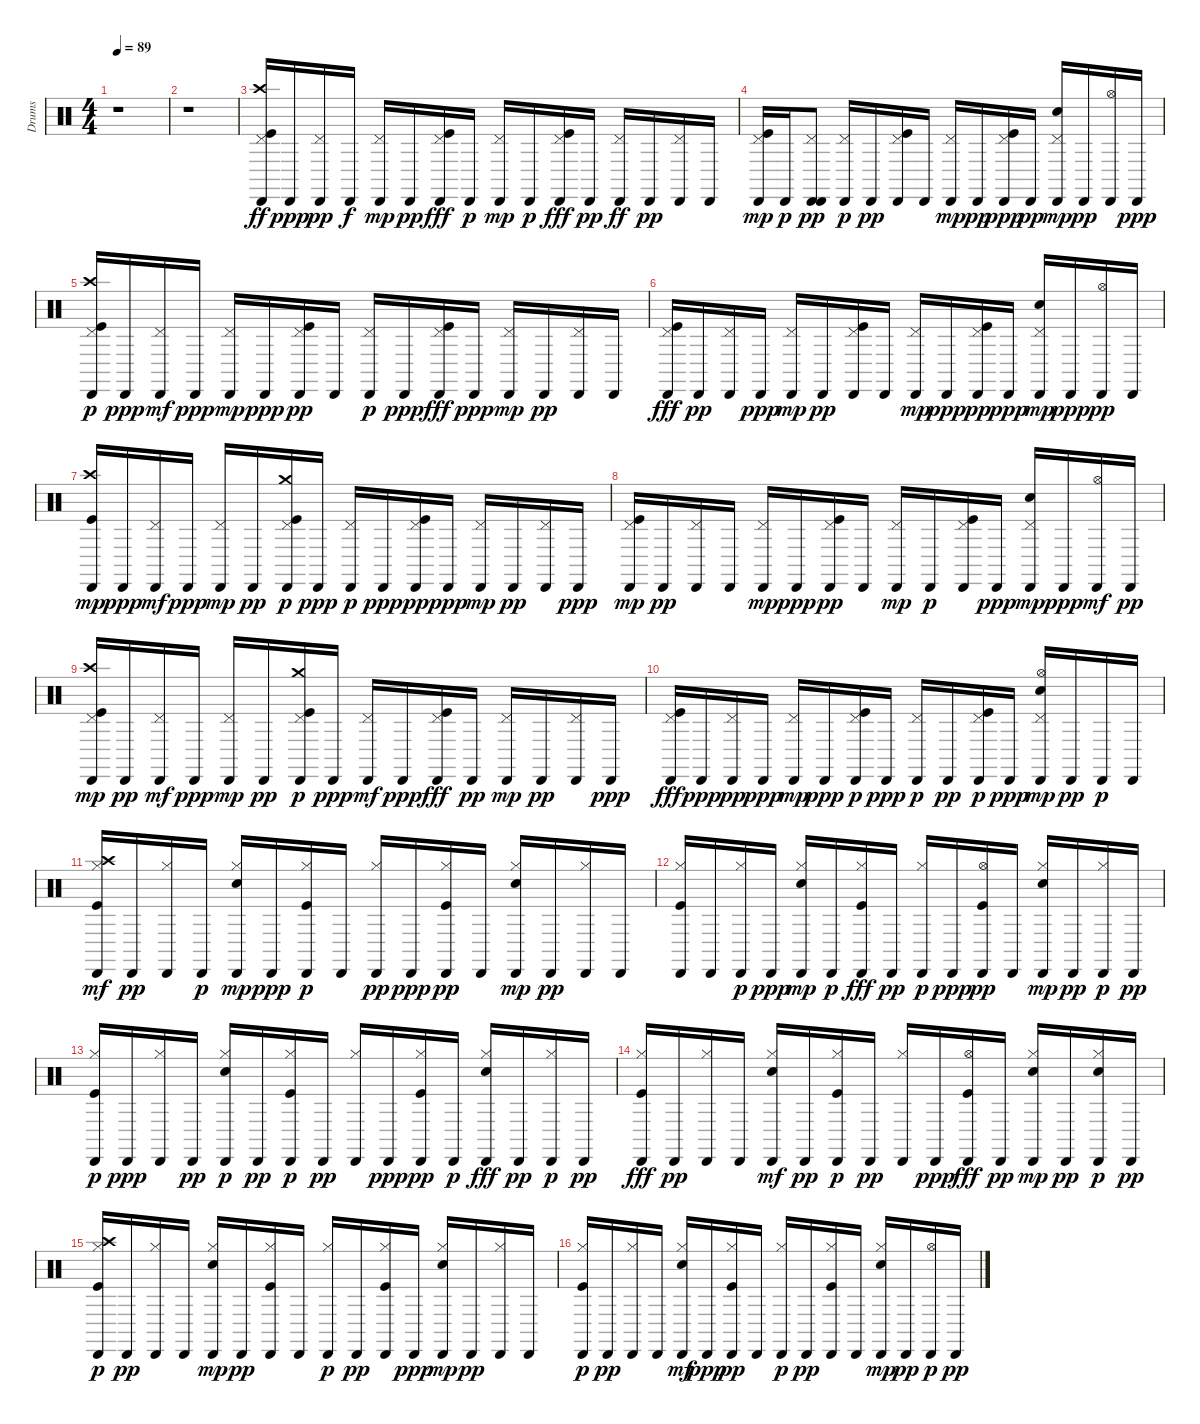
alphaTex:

\track ("Drums" "Drums") {instrument percussion}
\staff {score}
\articulation defaults
\ts (4 4)
\tempo 89
\clef neutral
\ks c
r.1{dy ff} |
r.1 |
("Pedal Hi-Hat (hit)" "Cabasa (hit)" "Kick (hit)" "Crash high (hit)").16 "Cabasa (hit)".16{dy ppp} ("Pedal Hi-Hat (hit)" "Cabasa (hit)").16{dy pp} "Cabasa (hit)".16{dy f} ("Pedal Hi-Hat (hit)" "Cabasa (hit)").16{dy mp} "Cabasa (hit)".16{dy pp} ("Pedal Hi-Hat (hit)" "Cabasa (hit)" "Kick (hit)").16{dy fff} "Cabasa (hit)".16{dy p} ("Pedal Hi-Hat (hit)" "Cabasa (hit)").16{dy mp} "Cabasa (hit)".16{dy p} ("Pedal Hi-Hat (hit)" "Cabasa (hit)" "Kick (hit)").16{dy fff} "Cabasa (hit)".16{dy pp} ("Cabasa (hit)" "Pedal Hi-Hat (hit)").16{dy ff} "Cabasa (hit)".16{dy pp} ("Pedal Hi-Hat (hit)" "Cabasa (hit)").16 "Cabasa (hit)".16 |
("Pedal Hi-Hat (hit)" "Kick (hit)" "Cabasa (hit)").16{dy mp} "Cabasa (hit)".16{dy p} ("Cabasa (hit)" "Pedal Hi-Hat (hit)" "Cabasa (hit)").8{dy pp} ("Pedal Hi-Hat (hit)" "Cabasa (hit)").16{dy p} "Cabasa (hit)".16{dy pp} ("Kick (hit)" "Pedal Hi-Hat (hit)" "Cabasa (hit)").16 "Cabasa (hit)".16 ("Pedal Hi-Hat (hit)" "Cabasa (hit)").16{dy mp} "Cabasa (hit)".16{dy pp} ("Pedal Hi-Hat (hit)" "Kick (hit)" "Cabasa (hit)").16{dy ppp} "Cabasa (hit)".16{dy pp} ("Pedal Hi-Hat (hit)" "Electric Snare (hit)" "Cabasa (hit)").16{dy mp} "Cabasa (hit)".16{dy pp} ("Hi-Hat (open)" "Cabasa (hit)").16 "Cabasa (hit)".16{dy ppp} |
("Kick (hit)" "Pedal Hi-Hat (hit)" "Cabasa (hit)" "Crash high (hit)").16{dy p} "Cabasa (hit)".16{dy ppp} ("Cabasa (hit)" "Pedal Hi-Hat (hit)").16{dy mf} "Cabasa (hit)".16{dy ppp} ("Cabasa (hit)" "Pedal Hi-Hat (hit)").16{dy mp} "Cabasa (hit)".16{dy ppp} ("Pedal Hi-Hat (hit)" "Kick (hit)" "Cabasa (hit)").16{dy pp} "Cabasa (hit)".16 ("Pedal Hi-Hat (hit)" "Cabasa (hit)").16{dy p} "Cabasa (hit)".16{dy ppp} ("Pedal Hi-Hat (hit)" "Cabasa (hit)" "Kick (hit)").16{dy fff} "Cabasa (hit)".16{dy ppp} ("Cabasa (hit)" "Pedal Hi-Hat (hit)").16{dy mp} "Cabasa (hit)".16{dy pp} ("Pedal Hi-Hat (hit)" "Cabasa (hit)").16 "Cabasa (hit)".16 |
("Cabasa (hit)" "Kick (hit)" "Pedal Hi-Hat (hit)").16{dy fff} "Cabasa (hit)".16{dy pp} ("Pedal Hi-Hat (hit)" "Cabasa (hit)").16 "Cabasa (hit)".16{dy ppp} ("Pedal Hi-Hat (hit)" "Cabasa (hit)").16{dy mp} "Cabasa (hit)".16{dy pp} ("Kick (hit)" "Pedal Hi-Hat (hit)" "Cabasa (hit)").16 "Cabasa (hit)".16 ("Pedal Hi-Hat (hit)" "Cabasa (hit)").16{dy mp} "Cabasa (hit)".16{dy ppp} ("Kick (hit)" "Pedal Hi-Hat (hit)" "Cabasa (hit)").16{dy pp} "Cabasa (hit)".16{dy ppp} ("Electric Snare (hit)" "Pedal Hi-Hat (hit)" "Cabasa (hit)").16{dy mp} "Cabasa (hit)".16{dy ppp} ("Hi-Hat (open)" "Cabasa (hit)").16{dy pp} "Cabasa (hit)".16 |
("Kick (hit)" "Crash high (hit)" "Cabasa (hit)").16{dy mp} "Cabasa (hit)".16{dy ppp} ("Cabasa (hit)" "Pedal Hi-Hat (hit)").16{dy mf} "Cabasa (hit)".16{dy ppp} ("Pedal Hi-Hat (hit)" "Cabasa (hit)").16{dy mp} "Cabasa (hit)".16{dy pp} ("Crash medium (hit)" "Pedal Hi-Hat (hit)" "Kick (hit)" "Cabasa (hit)").16{dy p} "Cabasa (hit)".16{dy ppp} ("Pedal Hi-Hat (hit)" "Cabasa (hit)").16{dy p} "Cabasa (hit)".16{dy ppp} ("Kick (hit)" "Pedal Hi-Hat (hit)" "Cabasa (hit)").16{dy pp} "Cabasa (hit)".16{dy ppp} ("Pedal Hi-Hat (hit)" "Cabasa (hit)").16{dy mp} "Cabasa (hit)".16{dy pp} ("Pedal Hi-Hat (hit)" "Cabasa (hit)").16 "Cabasa (hit)".16{dy ppp} |
("Pedal Hi-Hat (hit)" "Kick (hit)" "Cabasa (hit)").16{dy mp} "Cabasa (hit)".16{dy pp} ("Pedal Hi-Hat (hit)" "Cabasa (hit)").16 "Cabasa (hit)".16 ("Pedal Hi-Hat (hit)" "Cabasa (hit)").16{dy mp} "Cabasa (hit)".16{dy ppp} ("Kick (hit)" "Pedal Hi-Hat (hit)" "Cabasa (hit)").16{dy pp} "Cabasa (hit)".16 ("Pedal Hi-Hat (hit)" "Cabasa (hit)").16{dy mp} "Cabasa (hit)".16{dy p} ("Pedal Hi-Hat (hit)" "Kick (hit)" "Cabasa (hit)").16 "Cabasa (hit)".16{dy ppp} ("Pedal Hi-Hat (hit)" "Electric Snare (hit)" "Cabasa (hit)").16{dy mp} "Cabasa (hit)".16{dy ppp} ("Cabasa (hit)" "Hi-Hat (open)").16{dy mf} "Cabasa (hit)".16{dy pp} |
("Kick (hit)" "Cabasa (hit)" "Pedal Hi-Hat (hit)" "Crash high (hit)").16{dy mp} "Cabasa (hit)".16{dy pp} ("Cabasa (hit)" "Pedal Hi-Hat (hit)").16{dy mf} "Cabasa (hit)".16{dy ppp} ("Cabasa (hit)" "Pedal Hi-Hat (hit)").16{dy mp} "Cabasa (hit)".16{dy pp} ("Crash medium (hit)" "Kick (hit)" "Pedal Hi-Hat (hit)" "Cabasa (hit)").16{dy p} "Cabasa (hit)".16{dy ppp} ("Cabasa (hit)" "Pedal Hi-Hat (hit)").16{dy mf} "Cabasa (hit)".16{dy ppp} ("Pedal Hi-Hat (hit)" "Cabasa (hit)" "Kick (hit)").16{dy fff} "Cabasa (hit)".16{dy pp} ("Pedal Hi-Hat (hit)" "Cabasa (hit)").16{dy mp} "Cabasa (hit)".16{dy pp} ("Pedal Hi-Hat (hit)" "Cabasa (hit)").16 "Cabasa (hit)".16{dy ppp} |
("Pedal Hi-Hat (hit)" "Cabasa (hit)" "Kick (hit)").16{dy fff} "Cabasa (hit)".16{dy ppp} ("Pedal Hi-Hat (hit)" "Cabasa (hit)").16{dy pp} "Cabasa (hit)".16{dy ppp} ("Pedal Hi-Hat (hit)" "Cabasa (hit)").16{dy mp} "Cabasa (hit)".16{dy ppp} ("Kick (hit)" "Pedal Hi-Hat (hit)" "Cabasa (hit)").16{dy p} "Cabasa (hit)".16{dy ppp} ("Pedal Hi-Hat (hit)" "Cabasa (hit)").16{dy p} "Cabasa (hit)".16{dy pp} ("Pedal Hi-Hat (hit)" "Kick (hit)" "Cabasa (hit)").16{dy p} "Cabasa (hit)".16{dy ppp} ("Electric Snare (hit)" "Hi-Hat (open)" "Pedal Hi-Hat (hit)" "Cabasa (hit)").16{dy mp} "Cabasa (hit)".16{dy pp} "Cabasa (hit)".16{dy p} "Cabasa (hit)".16 |
("Hi-Hat (closed)" "Cabasa (hit)" "Kick (hit)" "Crash high (hit)").16{dy mf} "Cabasa (hit)".16{dy pp} ("Hi-Hat (closed)" "Cabasa (hit)").16 "Cabasa (hit)".16{dy p} ("Electric Snare (hit)" "Hi-Hat (closed)" "Cabasa (hit)").16{dy mp} "Cabasa (hit)".16{dy ppp} ("Hi-Hat (closed)" "Kick (hit)" "Cabasa (hit)").16{dy p} "Cabasa (hit)".16 ("Hi-Hat (closed)" "Cabasa (hit)").16{dy pp} "Cabasa (hit)".16{dy ppp} ("Kick (hit)" "Hi-Hat (closed)" "Cabasa (hit)").16{dy pp} "Cabasa (hit)".16 ("Electric Snare (hit)" "Hi-Hat (closed)" "Cabasa (hit)").16{dy mp} "Cabasa (hit)".16{dy pp} ("Hi-Hat (closed)" "Cabasa (hit)").16 "Cabasa (hit)".16 |
("Kick (hit)" "Hi-Hat (closed)" "Cabasa (hit)").16 "Cabasa (hit)".16 ("Hi-Hat (closed)" "Cabasa (hit)").16{dy p} "Cabasa (hit)".16{dy ppp} ("Electric Snare (hit)" "Hi-Hat (closed)" "Cabasa (hit)").16{dy mp} "Cabasa (hit)".16{dy p} ("Hi-Hat (closed)" "Cabasa (hit)" "Kick (hit)").16{dy fff} "Cabasa (hit)".16{dy pp} ("Hi-Hat (closed)" "Cabasa (hit)").16{dy p} "Cabasa (hit)".16{dy ppp} ("Hi-Hat (open)" "Kick (hit)" "Cabasa (hit)").16{dy pp} "Cabasa (hit)".16 ("Hi-Hat (closed)" "Electric Snare (hit)" "Cabasa (hit)").16{dy mp} "Cabasa (hit)".16{dy pp} ("Hi-Hat (closed)" "Cabasa (hit)").16{dy p} "Cabasa (hit)".16{dy pp} |
("Hi-Hat (closed)" "Kick (hit)" "Cabasa (hit)").16{dy p} "Cabasa (hit)".16{dy ppp} ("Hi-Hat (closed)" "Cabasa (hit)").16 "Cabasa (hit)".16{dy pp} ("Electric Snare (hit)" "Hi-Hat (closed)" "Cabasa (hit)").16{dy p} "Cabasa (hit)".16{dy pp} ("Hi-Hat (closed)" "Kick (hit)" "Cabasa (hit)").16{dy p} "Cabasa (hit)".16{dy pp} ("Hi-Hat (closed)" "Cabasa (hit)").16 "Cabasa (hit)".16{dy ppp} ("Hi-Hat (closed)" "Kick (hit)" "Cabasa (hit)").16{dy pp} "Cabasa (hit)".16{dy p} ("Hi-Hat (closed)" "Cabasa (hit)" "Electric Snare (hit)").16{dy fff} "Cabasa (hit)".16{dy pp} ("Hi-Hat (closed)" "Cabasa (hit)").16{dy p} "Cabasa (hit)".16{dy pp} |
("Hi-Hat (closed)" "Cabasa (hit)" "Kick (hit)").16{dy fff} "Cabasa (hit)".16{dy pp} ("Hi-Hat (closed)" "Cabasa (hit)").16 "Cabasa (hit)".16 ("Electric Snare (hit)" "Cabasa (hit)" "Hi-Hat (closed)").16{dy mf} "Cabasa (hit)".16{dy pp} ("Hi-Hat (closed)" "Kick (hit)" "Cabasa (hit)").16{dy p} "Cabasa (hit)".16{dy pp} ("Hi-Hat (closed)" "Cabasa (hit)").16 "Cabasa (hit)".16{dy ppp} ("Hi-Hat (open)" "Cabasa (hit)" "Kick (hit)").16{dy fff} "Cabasa (hit)".16{dy pp} ("Electric Snare (hit)" "Hi-Hat (closed)" "Cabasa (hit)").16{dy mp} "Cabasa (hit)".16{dy pp} ("Hi-Hat (closed)" "Electric Snare (hit)" "Cabasa (hit)").16{dy p} "Cabasa (hit)".16{dy pp} |
("Hi-Hat (closed)" "Kick (hit)" "Crash high (hit)" "Cabasa (hit)").16{dy p} "Cabasa (hit)".16{dy pp} ("Hi-Hat (closed)" "Cabasa (hit)").16 "Cabasa (hit)".16 ("Hi-Hat (closed)" "Electric Snare (hit)" "Cabasa (hit)").16{dy mp} "Cabasa (hit)".16{dy pp} ("Kick (hit)" "Hi-Hat (closed)" "Cabasa (hit)").16 "Cabasa (hit)".16 ("Hi-Hat (closed)" "Cabasa (hit)").16{dy p} "Cabasa (hit)".16{dy pp} ("Kick (hit)" "Hi-Hat (closed)" "Cabasa (hit)").16 "Cabasa (hit)".16{dy ppp} ("Electric Snare (hit)" "Hi-Hat (closed)" "Cabasa (hit)").16{dy mp} "Cabasa (hit)".16{dy pp} ("Hi-Hat (closed)" "Cabasa (hit)").16 "Cabasa (hit)".16 |
("Kick (hit)" "Hi-Hat (closed)" "Cabasa (hit)").16{dy p} "Cabasa (hit)".16{dy pp} ("Hi-Hat (closed)" "Cabasa (hit)").16 "Cabasa (hit)".16 ("Electric Snare (hit)" "Cabasa (hit)" "Hi-Hat (closed)").16{dy mf} "Cabasa (hit)".16{dy ppp} ("Hi-Hat (closed)" "Kick (hit)" "Cabasa (hit)").16{dy pp} "Cabasa (hit)".16 ("Hi-Hat (closed)" "Cabasa (hit)").16{dy p} "Cabasa (hit)".16{dy pp} ("Hi-Hat (closed)" "Kick (hit)" "Cabasa (hit)").16 "Cabasa (hit)".16 ("Electric Snare (hit)" "Hi-Hat (closed)" "Cabasa (hit)").16{dy mp} "Cabasa (hit)".16{dy pp} ("Hi-Hat (open)" "Cabasa (hit)").16{dy p} "Cabasa (hit)".16{dy pp}
